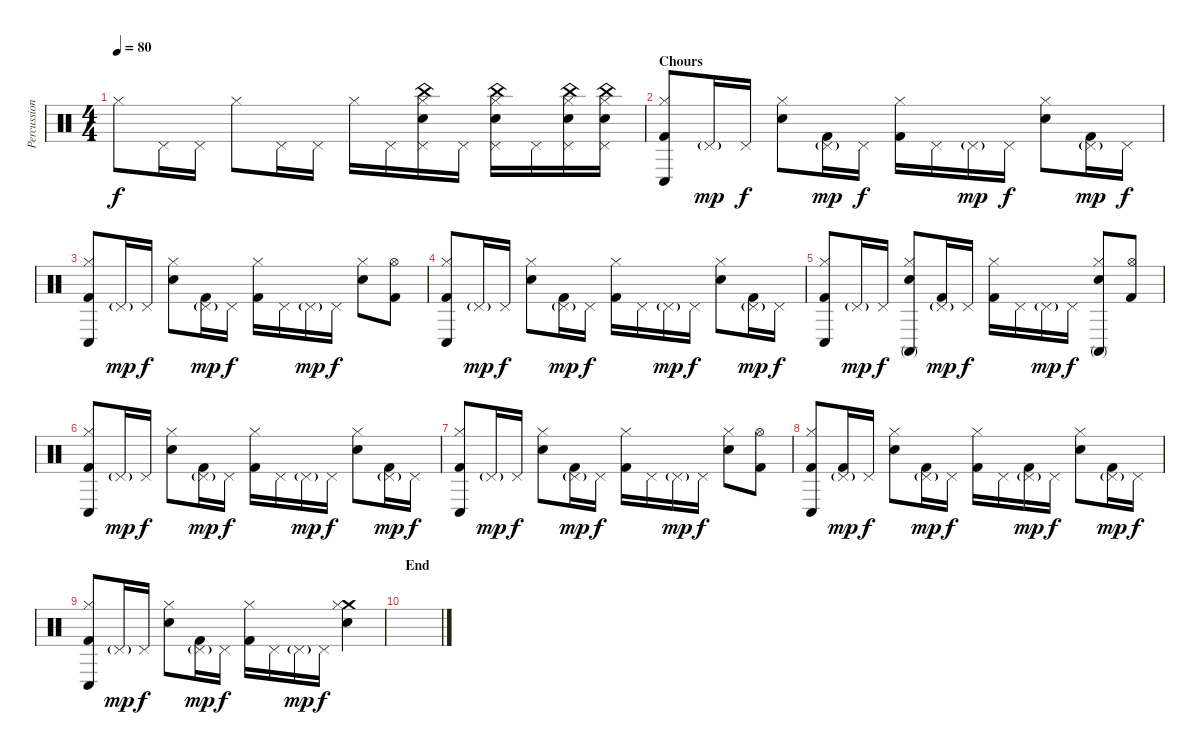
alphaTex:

\track ("Percussion" "Percussion") {instrument percussion}
\staff {score}
\articulation defaults
\ts (4 4)
\tempo 80
\clef neutral
\ks c "Hi-Hat (closed)".8{dy f} "Pedal Hi-Hat (hit)".16 "Pedal Hi-Hat (hit)".16 "Hi-Hat (closed)".8 "Pedal Hi-Hat (hit)".16 "Pedal Hi-Hat (hit)".16 "Hi-Hat (closed)".16 "Pedal Hi-Hat (hit)".16
("Snare (hit) 2" "China (hit)" "Hi-Hat (closed)" "Pedal Hi-Hat (hit)").16 "Pedal Hi-Hat (hit)".16 ("Snare (hit) 2" "China (hit)" "Hi-Hat (closed)" "Pedal Hi-Hat (hit)").16 "Pedal Hi-Hat (hit)".16 ("Snare (hit) 2" "China (hit)" "Hi-Hat (closed)" "Pedal Hi-Hat (hit)").16 ("Snare (hit) 2" "China (hit)" "Hi-Hat (closed)" "Pedal Hi-Hat (hit)").16 |
\section ("" "Chours")
("Kick (hit) 2" "Conga low (hit)" "Hi-Hat (closed)").8 "Pedal Hi-Hat (hit)"{g}.16{dy mp} "Pedal Hi-Hat (hit)".16{dy f} ("Snare (hit) 2" "Hi-Hat (closed)").8 ("Kick (hit) 2" "Pedal Hi-Hat (hit)"{g}).16{dy mp} "Pedal Hi-Hat (hit)".16{dy f} ("Kick (hit) 2" "Hi-Hat (closed)").16 "Pedal Hi-Hat (hit)".16 "Pedal Hi-Hat (hit)"{g}.16{dy mp} "Pedal Hi-Hat (hit)".16{dy f} ("Snare (hit) 2" "Hi-Hat (closed)").8 ("Kick (hit) 2" "Pedal Hi-Hat (hit)"{g}).16{dy mp} "Pedal Hi-Hat (hit)".16{dy f} |
("Kick (hit) 2" "Conga low (hit)" "Hi-Hat (closed)").8 "Pedal Hi-Hat (hit)"{g}.16{dy mp} "Pedal Hi-Hat (hit)".16{dy f} ("Snare (hit) 2" "Hi-Hat (closed)").8 ("Kick (hit) 2" "Pedal Hi-Hat (hit)"{g}).16{dy mp} "Pedal Hi-Hat (hit)".16{dy f} ("Kick (hit) 2" "Hi-Hat (closed)").16 "Pedal Hi-Hat (hit)".16 "Pedal Hi-Hat (hit)"{g}.16{dy mp} "Pedal Hi-Hat (hit)".16{dy f} ("Snare (hit) 2" "Hi-Hat (closed)").8 ("Kick (hit) 2" "Hi-Hat (open)").8 |
("Kick (hit) 2" "Conga low (hit)" "Hi-Hat (closed)").8 "Pedal Hi-Hat (hit)"{g}.16{dy mp} "Pedal Hi-Hat (hit)".16{dy f} ("Snare (hit) 2" "Hi-Hat (closed)").8 ("Kick (hit) 2" "Pedal Hi-Hat (hit)"{g}).16{dy mp} "Pedal Hi-Hat (hit)".16{dy f} ("Kick (hit) 2" "Hi-Hat (closed)").16 "Pedal Hi-Hat (hit)".16 "Pedal Hi-Hat (hit)"{g}.16{dy mp} "Pedal Hi-Hat (hit)".16{dy f} ("Snare (hit) 2" "Hi-Hat (closed)").8 ("Kick (hit) 2" "Pedal Hi-Hat (hit)"{g}).16{dy mp} "Pedal Hi-Hat (hit)".16{dy f} |
("Kick (hit) 2" "Conga low (hit)" "Hi-Hat (closed)").8 "Pedal Hi-Hat (hit)"{g}.16{dy mp} "Pedal Hi-Hat (hit)".16{dy f} ("Snare (hit) 2" "Conga high (mute)" "Hi-Hat (closed)").8 ("Kick (hit) 2" "Pedal Hi-Hat (hit)"{g}).16{dy mp} "Pedal Hi-Hat (hit)".16{dy f} ("Kick (hit) 2" "Hi-Hat (closed)").16 "Pedal Hi-Hat (hit)".16 "Pedal Hi-Hat (hit)"{g}.16{dy mp} "Pedal Hi-Hat (hit)".16{dy f} ("Snare (hit) 2" "Conga high (mute)" "Hi-Hat (closed)").8 ("Kick (hit) 2" "Hi-Hat (open)").8 |
("Kick (hit) 2" "Conga low (hit)" "Hi-Hat (closed)").8 "Pedal Hi-Hat (hit)"{g}.16{dy mp} "Pedal Hi-Hat (hit)".16{dy f} ("Snare (hit) 2" "Hi-Hat (closed)").8 ("Kick (hit) 2" "Pedal Hi-Hat (hit)"{g}).16{dy mp} "Pedal Hi-Hat (hit)".16{dy f} ("Kick (hit) 2" "Hi-Hat (closed)").16 "Pedal Hi-Hat (hit)".16 "Pedal Hi-Hat (hit)"{g}.16{dy mp} "Pedal Hi-Hat (hit)".16{dy f} ("Snare (hit) 2" "Hi-Hat (closed)").8 ("Kick (hit) 2" "Pedal Hi-Hat (hit)"{g}).16{dy mp} "Pedal Hi-Hat (hit)".16{dy f} |
("Kick (hit) 2" "Conga low (hit)" "Hi-Hat (closed)").8 "Pedal Hi-Hat (hit)"{g}.16{dy mp} "Pedal Hi-Hat (hit)".16{dy f} ("Snare (hit) 2" "Hi-Hat (closed)").8 ("Kick (hit) 2" "Pedal Hi-Hat (hit)"{g}).16{dy mp} "Pedal Hi-Hat (hit)".16{dy f} ("Kick (hit) 2" "Hi-Hat (closed)").16 "Pedal Hi-Hat (hit)".16 "Pedal Hi-Hat (hit)"{g}.16{dy mp} "Pedal Hi-Hat (hit)".16{dy f} ("Snare (hit) 2" "Hi-Hat (closed)").8 ("Kick (hit) 2" "Hi-Hat (open)").8 |
("Kick (hit) 2" "Conga low (hit)" "Hi-Hat (closed)").8 ("Kick (hit) 2" "Pedal Hi-Hat (hit)"{g}).16{dy mp} "Pedal Hi-Hat (hit)".16{dy f} ("Snare (hit) 2" "Hi-Hat (closed)").8 ("Kick (hit) 2" "Pedal Hi-Hat (hit)"{g}).16{dy mp} "Pedal Hi-Hat (hit)".16{dy f} ("Kick (hit) 2" "Hi-Hat (closed)").16 "Pedal Hi-Hat (hit)".16 ("Kick (hit) 2" "Pedal Hi-Hat (hit)"{g}).16{dy mp} "Pedal Hi-Hat (hit)".16{dy f} ("Snare (hit) 2" "Hi-Hat (closed)").8 ("Kick (hit) 2" "Pedal Hi-Hat (hit)"{g}).16{dy mp} "Pedal Hi-Hat (hit)".16{dy f} |
("Kick (hit) 2" "Conga low (hit)" "Hi-Hat (closed)").8 "Pedal Hi-Hat (hit)"{g}.16{dy mp} "Pedal Hi-Hat (hit)".16{dy f} ("Snare (hit) 2" "Hi-Hat (closed)").8 ("Kick (hit) 2" "Pedal Hi-Hat (hit)"{g}).16{dy mp} "Pedal Hi-Hat (hit)".16{dy f} ("Kick (hit) 2" "Hi-Hat (closed)").16 "Pedal Hi-Hat (hit)".16 "Pedal Hi-Hat (hit)"{g}.16{dy mp} "Pedal Hi-Hat (hit)".16{dy f} ("Snare (hit) 2" "Crash medium (hit)" "Hi-Hat (closed)").4 |
\section ("" "End")
